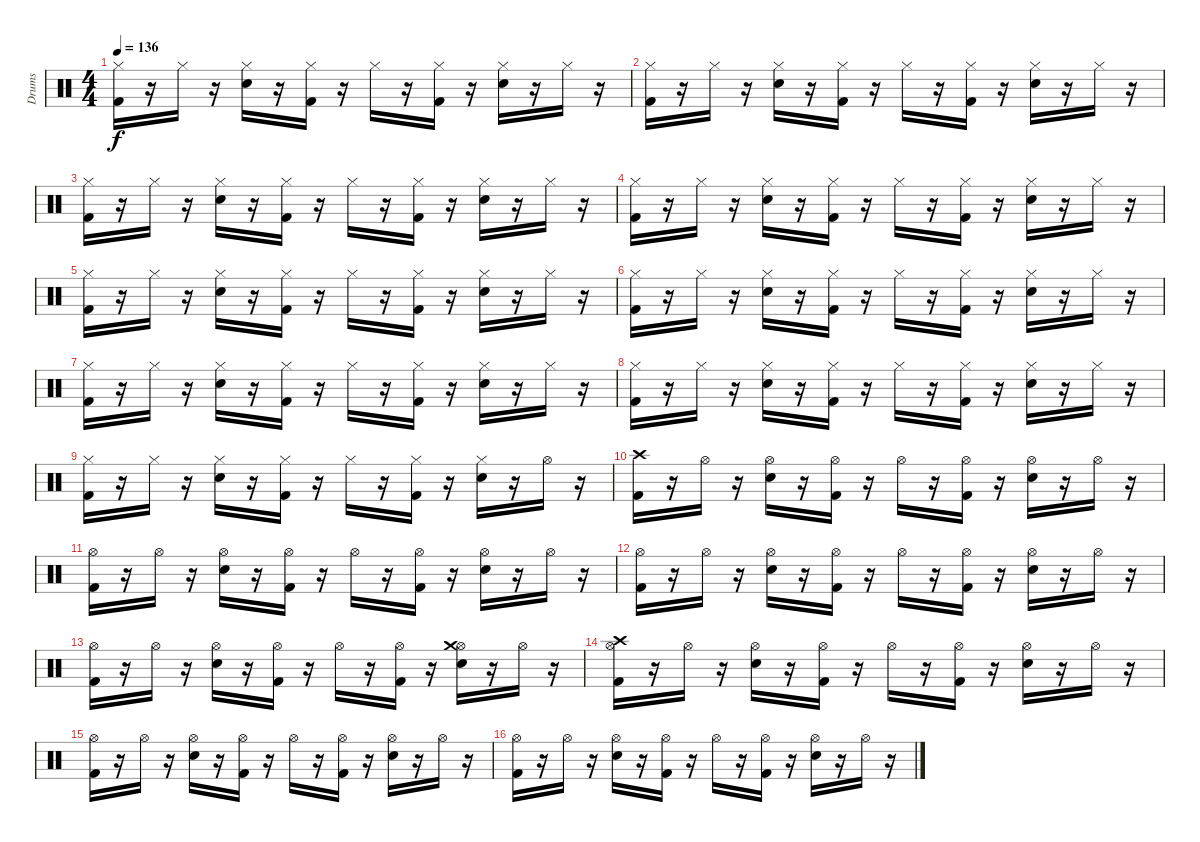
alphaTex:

\track ("Drums" "Drums") {instrument percussion}
\staff {score}
\articulation defaults
\ts (4 4)
\tempo 136
\clef neutral
\ks c
("Kick (hit) 2" "Hi-Hat (closed)").16{dy f} r.16 "Hi-Hat (closed)".16 r.16 ("Electric Snare (hit)" "Hi-Hat (closed)").16 r.16 ("Kick (hit) 2" "Hi-Hat (closed)").16 r.16 "Hi-Hat (closed)".16 r.16 ("Kick (hit) 2" "Hi-Hat (closed)").16 r.16 ("Electric Snare (hit)" "Hi-Hat (closed)").16 r.16 "Hi-Hat (closed)".16 r.16 |
("Kick (hit) 2" "Hi-Hat (closed)").16 r.16 "Hi-Hat (closed)".16 r.16 ("Electric Snare (hit)" "Hi-Hat (closed)").16 r.16 ("Kick (hit) 2" "Hi-Hat (closed)").16 r.16 "Hi-Hat (closed)".16 r.16 ("Kick (hit) 2" "Hi-Hat (closed)").16 r.16 ("Electric Snare (hit)" "Hi-Hat (closed)").16 r.16 "Hi-Hat (closed)".16 r.16 |
("Kick (hit) 2" "Hi-Hat (closed)").16 r.16 "Hi-Hat (closed)".16 r.16 ("Electric Snare (hit)" "Hi-Hat (closed)").16 r.16 ("Kick (hit) 2" "Hi-Hat (closed)").16 r.16 "Hi-Hat (closed)".16 r.16 ("Kick (hit) 2" "Hi-Hat (closed)").16 r.16 ("Electric Snare (hit)" "Hi-Hat (closed)").16 r.16 "Hi-Hat (closed)".16 r.16 |
("Kick (hit) 2" "Hi-Hat (closed)").16 r.16 "Hi-Hat (closed)".16 r.16 ("Electric Snare (hit)" "Hi-Hat (closed)").16 r.16 ("Kick (hit) 2" "Hi-Hat (closed)").16 r.16 "Hi-Hat (closed)".16 r.16 ("Kick (hit) 2" "Hi-Hat (closed)").16 r.16 ("Electric Snare (hit)" "Hi-Hat (closed)").16 r.16 "Hi-Hat (closed)".16 r.16 |
("Kick (hit) 2" "Hi-Hat (closed)").16 r.16 "Hi-Hat (closed)".16 r.16 ("Electric Snare (hit)" "Hi-Hat (closed)").16 r.16 ("Kick (hit) 2" "Hi-Hat (closed)").16 r.16 "Hi-Hat (closed)".16 r.16 ("Kick (hit) 2" "Hi-Hat (closed)").16 r.16 ("Electric Snare (hit)" "Hi-Hat (closed)").16 r.16 "Hi-Hat (closed)".16 r.16 |
("Kick (hit) 2" "Hi-Hat (closed)").16 r.16 "Hi-Hat (closed)".16 r.16 ("Electric Snare (hit)" "Hi-Hat (closed)").16 r.16 ("Kick (hit) 2" "Hi-Hat (closed)").16 r.16 "Hi-Hat (closed)".16 r.16 ("Kick (hit) 2" "Hi-Hat (closed)").16 r.16 ("Electric Snare (hit)" "Hi-Hat (closed)").16 r.16 "Hi-Hat (closed)".16 r.16 |
("Kick (hit) 2" "Hi-Hat (closed)").16 r.16 "Hi-Hat (closed)".16 r.16 ("Electric Snare (hit)" "Hi-Hat (closed)").16 r.16 ("Kick (hit) 2" "Hi-Hat (closed)").16 r.16 "Hi-Hat (closed)".16 r.16 ("Kick (hit) 2" "Hi-Hat (closed)").16 r.16 ("Electric Snare (hit)" "Hi-Hat (closed)").16 r.16 "Hi-Hat (closed)".16 r.16 |
("Kick (hit) 2" "Hi-Hat (closed)").16 r.16 "Hi-Hat (closed)".16 r.16 ("Electric Snare (hit)" "Hi-Hat (closed)").16 r.16 ("Kick (hit) 2" "Hi-Hat (closed)").16 r.16 "Hi-Hat (closed)".16 r.16 ("Kick (hit) 2" "Hi-Hat (closed)").16 r.16 ("Electric Snare (hit)" "Hi-Hat (closed)").16 r.16 "Hi-Hat (closed)".16 r.16 |
("Kick (hit) 2" "Hi-Hat (closed)").16 r.16 "Hi-Hat (closed)".16 r.16 ("Electric Snare (hit)" "Hi-Hat (closed)").16 r.16 ("Kick (hit) 2" "Hi-Hat (closed)").16 r.16 "Hi-Hat (closed)".16 r.16 ("Kick (hit) 2" "Hi-Hat (closed)").16 r.16 ("Electric Snare (hit)" "Hi-Hat (closed)").16 r.16 "Hi-Hat (open)".16 r.16 |
("Kick (hit) 2" "Crash high (hit)").16 r.16 "Hi-Hat (open)".16 r.16 ("Electric Snare (hit)" "Hi-Hat (open)").16 r.16 ("Kick (hit) 2" "Hi-Hat (open)").16 r.16 "Hi-Hat (open)".16 r.16 ("Kick (hit) 2" "Hi-Hat (open)").16 r.16 ("Electric Snare (hit)" "Hi-Hat (open)").16 r.16 "Hi-Hat (open)".16 r.16 |
("Kick (hit) 2" "Hi-Hat (open)").16 r.16 "Hi-Hat (open)".16 r.16 ("Electric Snare (hit)" "Hi-Hat (open)").16 r.16 ("Kick (hit) 2" "Hi-Hat (open)").16 r.16 "Hi-Hat (open)".16 r.16 ("Kick (hit) 2" "Hi-Hat (open)").16 r.16 ("Electric Snare (hit)" "Hi-Hat (open)").16 r.16 "Hi-Hat (open)".16 r.16 |
("Kick (hit) 2" "Hi-Hat (open)").16 r.16 "Hi-Hat (open)".16 r.16 ("Electric Snare (hit)" "Hi-Hat (open)").16 r.16 ("Kick (hit) 2" "Hi-Hat (open)").16 r.16 "Hi-Hat (open)".16 r.16 ("Kick (hit) 2" "Hi-Hat (open)").16 r.16 ("Electric Snare (hit)" "Hi-Hat (open)").16 r.16 "Hi-Hat (open)".16 r.16 |
("Kick (hit) 2" "Hi-Hat (open)").16 r.16 "Hi-Hat (open)".16 r.16 ("Electric Snare (hit)" "Hi-Hat (open)").16 r.16 ("Kick (hit) 2" "Hi-Hat (open)").16 r.16 "Hi-Hat (open)".16 r.16 ("Kick (hit) 2" "Hi-Hat (open)").16 r.16 ("Electric Snare (hit)" "Hi-Hat (open)" "Crash medium (hit)").16 r.16 "Hi-Hat (open)".16 r.16 |
("Kick (hit) 2" "Hi-Hat (open)" "Crash high (hit)").16 r.16 "Hi-Hat (open)".16 r.16 ("Electric Snare (hit)" "Hi-Hat (open)").16 r.16 ("Kick (hit) 2" "Hi-Hat (open)").16 r.16 "Hi-Hat (open)".16 r.16 ("Kick (hit) 2" "Hi-Hat (open)").16 r.16 ("Electric Snare (hit)" "Hi-Hat (open)").16 r.16 "Hi-Hat (open)".16 r.16 |
("Kick (hit) 2" "Hi-Hat (open)").16 r.16 "Hi-Hat (open)".16 r.16 ("Electric Snare (hit)" "Hi-Hat (open)").16 r.16 ("Kick (hit) 2" "Hi-Hat (open)").16 r.16 "Hi-Hat (open)".16 r.16 ("Kick (hit) 2" "Hi-Hat (open)").16 r.16 ("Electric Snare (hit)" "Hi-Hat (open)").16 r.16 "Hi-Hat (open)".16 r.16 |
("Kick (hit) 2" "Hi-Hat (open)").16 r.16 "Hi-Hat (open)".16 r.16 ("Electric Snare (hit)" "Hi-Hat (open)").16 r.16 ("Kick (hit) 2" "Hi-Hat (open)").16 r.16 "Hi-Hat (open)".16 r.16 ("Kick (hit) 2" "Hi-Hat (open)").16 r.16 ("Electric Snare (hit)" "Hi-Hat (open)").16 r.16 "Hi-Hat (open)".16 r.16
